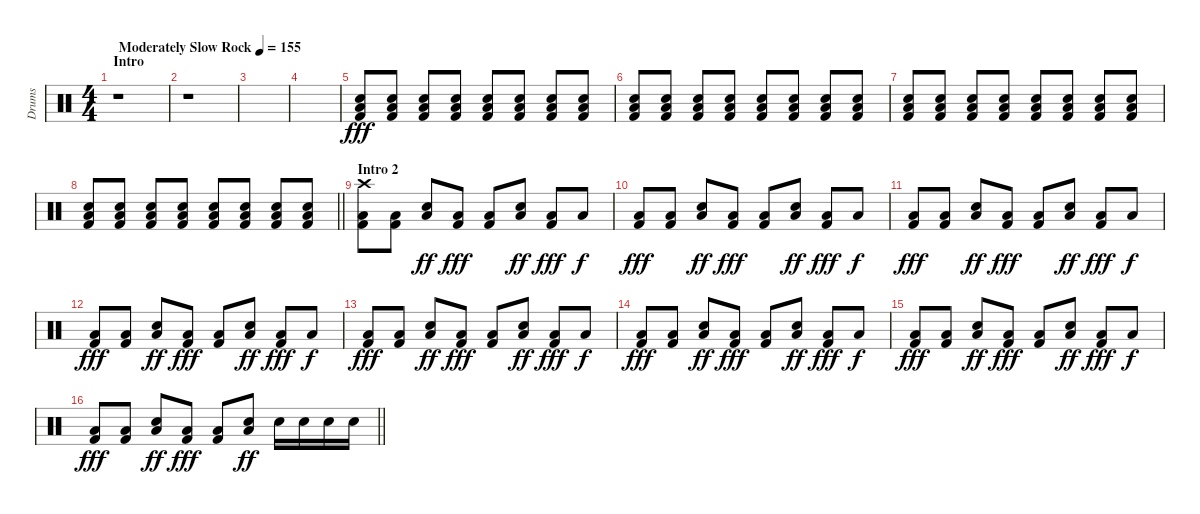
\track ("Drums" "Drums") {instrument percussion}
\staff {score}
\articulation defaults
\ts (4 4)
\section ("" "Intro")
\tempo (155 "Moderately Slow Rock")
\clef neutral
\ks c
r.1{dy fff volume 7} |
r.1 |
|
|
("Snare (hit) 2" "Low Floor Tom (hit)" "Kick (hit) 2").8{volume 15} ("Snare (hit) 2" "Low Floor Tom (hit)" "Kick (hit) 2").8 ("Snare (hit) 2" "Low Floor Tom (hit)" "Kick (hit) 2").8 ("Snare (hit) 2" "Low Floor Tom (hit)" "Kick (hit) 2").8 ("Snare (hit) 2" "Low Floor Tom (hit)" "Kick (hit) 2").8 ("Snare (hit) 2" "Low Floor Tom (hit)" "Kick (hit) 2").8 ("Snare (hit) 2" "Low Floor Tom (hit)" "Kick (hit) 2").8 ("Snare (hit) 2" "Low Floor Tom (hit)" "Kick (hit) 2").8 |
("Snare (hit) 2" "Low Floor Tom (hit)" "Kick (hit) 2").8 ("Snare (hit) 2" "Low Floor Tom (hit)" "Kick (hit) 2").8 ("Snare (hit) 2" "Low Floor Tom (hit)" "Kick (hit) 2").8 ("Snare (hit) 2" "Low Floor Tom (hit)" "Kick (hit) 2").8 ("Snare (hit) 2" "Low Floor Tom (hit)" "Kick (hit) 2").8 ("Snare (hit) 2" "Low Floor Tom (hit)" "Kick (hit) 2").8 ("Snare (hit) 2" "Low Floor Tom (hit)" "Kick (hit) 2").8 ("Snare (hit) 2" "Low Floor Tom (hit)" "Kick (hit) 2").8 |
("Snare (hit) 2" "Low Floor Tom (hit)" "Kick (hit) 2").8 ("Snare (hit) 2" "Low Floor Tom (hit)" "Kick (hit) 2").8 ("Snare (hit) 2" "Low Floor Tom (hit)" "Kick (hit) 2").8 ("Snare (hit) 2" "Low Floor Tom (hit)" "Kick (hit) 2").8 ("Snare (hit) 2" "Low Floor Tom (hit)" "Kick (hit) 2").8 ("Snare (hit) 2" "Low Floor Tom (hit)" "Kick (hit) 2").8 ("Snare (hit) 2" "Low Floor Tom (hit)" "Kick (hit) 2").8 ("Snare (hit) 2" "Low Floor Tom (hit)" "Kick (hit) 2").8 |
\barLineRight lightlight
("Snare (hit) 2" "Low Floor Tom (hit)" "Kick (hit) 2").8 ("Snare (hit) 2" "Low Floor Tom (hit)" "Kick (hit) 2").8 ("Snare (hit) 2" "Low Floor Tom (hit)" "Kick (hit) 2").8 ("Snare (hit) 2" "Low Floor Tom (hit)" "Kick (hit) 2").8 ("Snare (hit) 2" "Low Floor Tom (hit)" "Kick (hit) 2").8 ("Snare (hit) 2" "Low Floor Tom (hit)" "Kick (hit) 2").8 ("Snare (hit) 2" "Low Floor Tom (hit)" "Kick (hit) 2").8 ("Snare (hit) 2" "Low Floor Tom (hit)" "Kick (hit) 2").8 |
\section ("" "Intro 2")
("Crash high (hit)" "Low Floor Tom (hit)" "Kick (hit) 2").8 ("Low Floor Tom (hit)" "Kick (hit) 2").8 ("Snare (hit) 2" "Low Floor Tom (hit)").8{dy ff} ("Low Floor Tom (hit)" "Kick (hit) 2").8{dy fff} ("Low Floor Tom (hit)" "Kick (hit) 2").8 ("Snare (hit) 2" "Low Floor Tom (hit)").8{dy ff} ("Low Floor Tom (hit)" "Kick (hit) 2").8{dy fff} "Low Floor Tom (hit)".8{dy f} |
("Low Floor Tom (hit)" "Kick (hit) 2").8{dy fff} ("Low Floor Tom (hit)" "Kick (hit) 2").8 ("Snare (hit) 2" "Low Floor Tom (hit)").8{dy ff} ("Low Floor Tom (hit)" "Kick (hit) 2").8{dy fff} ("Low Floor Tom (hit)" "Kick (hit) 2").8 ("Snare (hit) 2" "Low Floor Tom (hit)").8{dy ff} ("Low Floor Tom (hit)" "Kick (hit) 2").8{dy fff} "Low Floor Tom (hit)".8{dy f} |
("Low Floor Tom (hit)" "Kick (hit) 2").8{dy fff} ("Low Floor Tom (hit)" "Kick (hit) 2").8 ("Snare (hit) 2" "Low Floor Tom (hit)").8{dy ff} ("Low Floor Tom (hit)" "Kick (hit) 2").8{dy fff} ("Low Floor Tom (hit)" "Kick (hit) 2").8 ("Snare (hit) 2" "Low Floor Tom (hit)").8{dy ff} ("Low Floor Tom (hit)" "Kick (hit) 2").8{dy fff} "Low Floor Tom (hit)".8{dy f} |
("Low Floor Tom (hit)" "Kick (hit) 2").8{dy fff} ("Low Floor Tom (hit)" "Kick (hit) 2").8 ("Snare (hit) 2" "Low Floor Tom (hit)").8{dy ff} ("Low Floor Tom (hit)" "Kick (hit) 2").8{dy fff} ("Low Floor Tom (hit)" "Kick (hit) 2").8 ("Snare (hit) 2" "Low Floor Tom (hit)").8{dy ff} ("Low Floor Tom (hit)" "Kick (hit) 2").8{dy fff} "Low Floor Tom (hit)".8{dy f} |
("Low Floor Tom (hit)" "Kick (hit) 2").8{dy fff} ("Low Floor Tom (hit)" "Kick (hit) 2").8 ("Snare (hit) 2" "Low Floor Tom (hit)").8{dy ff} ("Low Floor Tom (hit)" "Kick (hit) 2").8{dy fff} ("Low Floor Tom (hit)" "Kick (hit) 2").8 ("Snare (hit) 2" "Low Floor Tom (hit)").8{dy ff} ("Low Floor Tom (hit)" "Kick (hit) 2").8{dy fff} "Low Floor Tom (hit)".8{dy f} |
("Low Floor Tom (hit)" "Kick (hit) 2").8{dy fff} ("Low Floor Tom (hit)" "Kick (hit) 2").8 ("Snare (hit) 2" "Low Floor Tom (hit)").8{dy ff} ("Low Floor Tom (hit)" "Kick (hit) 2").8{dy fff} ("Low Floor Tom (hit)" "Kick (hit) 2").8 ("Snare (hit) 2" "Low Floor Tom (hit)").8{dy ff} ("Low Floor Tom (hit)" "Kick (hit) 2").8{dy fff} "Low Floor Tom (hit)".8{dy f} |
("Low Floor Tom (hit)" "Kick (hit) 2").8{dy fff} ("Low Floor Tom (hit)" "Kick (hit) 2").8 ("Snare (hit) 2" "Low Floor Tom (hit)").8{dy ff} ("Low Floor Tom (hit)" "Kick (hit) 2").8{dy fff} ("Low Floor Tom (hit)" "Kick (hit) 2").8 ("Snare (hit) 2" "Low Floor Tom (hit)").8{dy ff} ("Low Floor Tom (hit)" "Kick (hit) 2").8{dy fff} "Low Floor Tom (hit)".8{dy f} |
\barLineRight lightlight
("Low Floor Tom (hit)" "Kick (hit) 2").8{dy fff} ("Low Floor Tom (hit)" "Kick (hit) 2").8 ("Snare (hit) 2" "Low Floor Tom (hit)").8{dy ff} ("Low Floor Tom (hit)" "Kick (hit) 2").8{dy fff} ("Low Floor Tom (hit)" "Kick (hit) 2").8 ("Snare (hit) 2" "Low Floor Tom (hit)").8{dy ff} "Snare (hit) 2".16 "Snare (hit) 2".16 "Snare (hit) 2".16 "Snare (hit) 2".16
